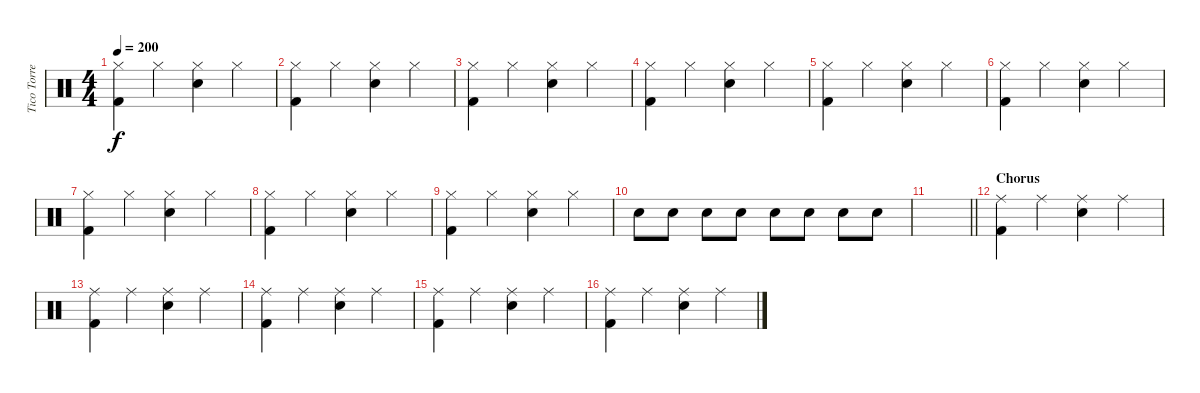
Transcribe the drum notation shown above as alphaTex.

\track ("Tico Torres" "Tico Torre") {instrument percussion}
\staff {score}
\articulation defaults
\ts (4 4)
\tempo 200
\clef neutral
\ks c
("Hi-Hat (closed)" "Kick (hit) 2").4{dy f} "Hi-Hat (closed)".4 ("Snare (hit) 2" "Hi-Hat (closed)").4 "Hi-Hat (closed)".4 |
("Hi-Hat (closed)" "Kick (hit) 2").4 "Hi-Hat (closed)".4 ("Snare (hit) 2" "Hi-Hat (closed)").4 "Hi-Hat (closed)".4 |
("Hi-Hat (closed)" "Kick (hit) 2").4 "Hi-Hat (closed)".4 ("Snare (hit) 2" "Hi-Hat (closed)").4 "Hi-Hat (closed)".4 |
("Hi-Hat (closed)" "Kick (hit) 2").4 "Hi-Hat (closed)".4 ("Snare (hit) 2" "Hi-Hat (closed)").4 "Hi-Hat (closed)".4 |
("Hi-Hat (closed)" "Kick (hit) 2").4 "Hi-Hat (closed)".4 ("Snare (hit) 2" "Hi-Hat (closed)").4 "Hi-Hat (closed)".4 |
("Hi-Hat (closed)" "Kick (hit) 2").4 "Hi-Hat (closed)".4 ("Snare (hit) 2" "Hi-Hat (closed)").4 "Hi-Hat (closed)".4 |
("Hi-Hat (closed)" "Kick (hit) 2").4 "Hi-Hat (closed)".4 ("Snare (hit) 2" "Hi-Hat (closed)").4 "Hi-Hat (closed)".4 |
("Hi-Hat (closed)" "Kick (hit) 2").4 "Hi-Hat (closed)".4 ("Snare (hit) 2" "Hi-Hat (closed)").4 "Hi-Hat (closed)".4 |
("Hi-Hat (closed)" "Kick (hit) 2").4 "Hi-Hat (closed)".4 ("Snare (hit) 2" "Hi-Hat (closed)").4 "Hi-Hat (closed)".4 |
"Snare (hit) 2".8 "Snare (hit) 2".8 "Snare (hit) 2".8 "Snare (hit) 2".8 "Snare (hit) 2".8 "Snare (hit) 2".8 "Snare (hit) 2".8 "Snare (hit) 2".8 |
\barLineRight lightlight
|
\section ("" "Chorus")
("Ride (middle)" "Kick (hit) 2").4 "Ride (middle)".4 ("Snare (hit) 2" "Ride (middle)").4 "Ride (middle)".4 |
("Ride (middle)" "Kick (hit) 2").4 "Ride (middle)".4 ("Snare (hit) 2" "Ride (middle)").4 "Ride (middle)".4 |
("Ride (middle)" "Kick (hit) 2").4 "Ride (middle)".4 ("Snare (hit) 2" "Ride (middle)").4 "Ride (middle)".4 |
("Ride (middle)" "Kick (hit) 2").4 "Ride (middle)".4 ("Snare (hit) 2" "Ride (middle)").4 "Ride (middle)".4 |
("Ride (middle)" "Kick (hit) 2").4 "Ride (middle)".4 ("Snare (hit) 2" "Ride (middle)").4 "Ride (middle)".4
